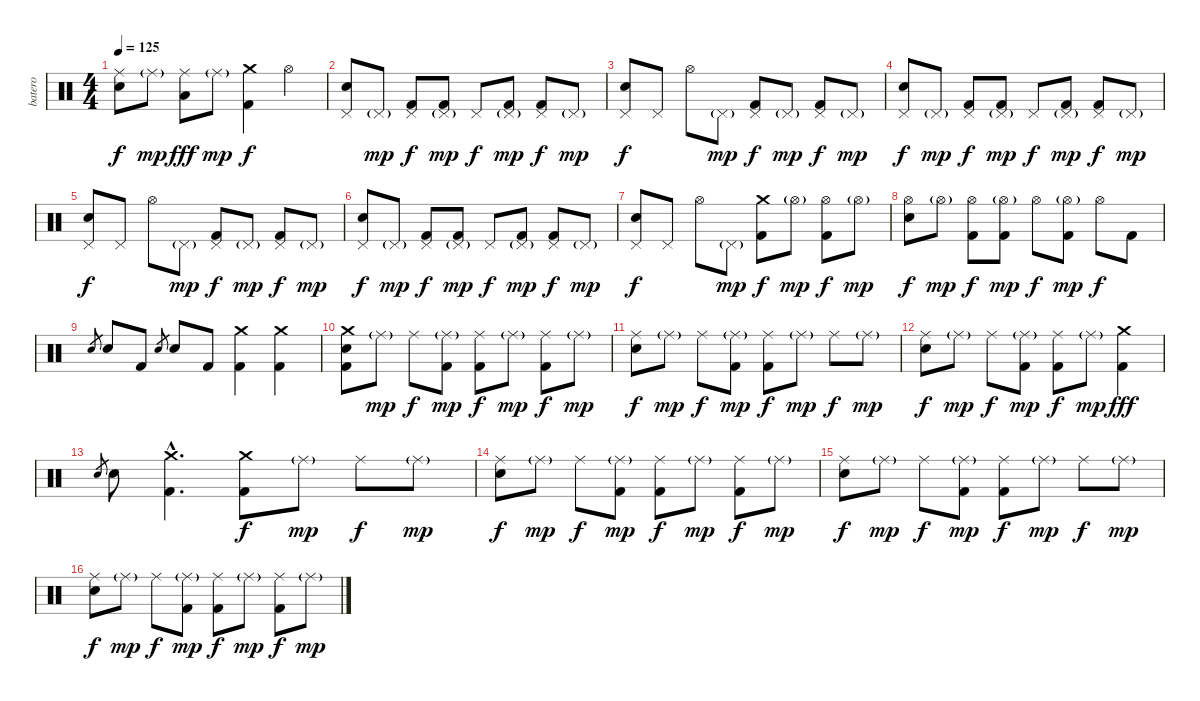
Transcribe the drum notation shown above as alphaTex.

\track ("batero" "batero") {instrument percussion}
\staff {score}
\articulation defaults
\ts (4 4)
\tempo 125
\clef neutral
\ks c
("Ride (middle)" "Snare (hit) 2").8{dy f} "Ride (middle)"{g}.8{dy mp} ("Ride (middle)" "Low Floor Tom (hit)").8{dy fff} "Ride (middle)"{g}.8{dy mp} ("Crash medium (hit)" "Kick (hit) 2").4{dy f} "Hi-Hat (open)".4 |
("Pedal Hi-Hat (hit)" "Snare (hit) 2").8 "Pedal Hi-Hat (hit)"{g}.8{dy mp} ("Pedal Hi-Hat (hit)" "Kick (hit) 2").8{dy f} ("Pedal Hi-Hat (hit)"{g} "Kick (hit) 2").8{dy mp} "Pedal Hi-Hat (hit)".8{dy f} ("Pedal Hi-Hat (hit)"{g} "Kick (hit) 2").8{dy mp} ("Pedal Hi-Hat (hit)" "Kick (hit) 2").8{dy f} "Pedal Hi-Hat (hit)"{g}.8{dy mp} |
("Pedal Hi-Hat (hit)" "Snare (hit) 2").8{dy f} "Pedal Hi-Hat (hit)".8 "Hi-Hat (open)".8 "Pedal Hi-Hat (hit)"{g}.8{dy mp} ("Pedal Hi-Hat (hit)" "Kick (hit) 2").8{dy f} "Pedal Hi-Hat (hit)"{g}.8{dy mp} ("Pedal Hi-Hat (hit)" "Kick (hit) 2").8{dy f} "Pedal Hi-Hat (hit)"{g}.8{dy mp} |
("Pedal Hi-Hat (hit)" "Snare (hit) 2").8{dy f} "Pedal Hi-Hat (hit)"{g}.8{dy mp} ("Pedal Hi-Hat (hit)" "Kick (hit) 2").8{dy f} ("Pedal Hi-Hat (hit)"{g} "Kick (hit) 2").8{dy mp} "Pedal Hi-Hat (hit)".8{dy f} ("Pedal Hi-Hat (hit)"{g} "Kick (hit) 2").8{dy mp} ("Pedal Hi-Hat (hit)" "Kick (hit) 2").8{dy f} "Pedal Hi-Hat (hit)"{g}.8{dy mp} |
("Pedal Hi-Hat (hit)" "Snare (hit) 2").8{dy f} "Pedal Hi-Hat (hit)".8 "Hi-Hat (open)".8 "Pedal Hi-Hat (hit)"{g}.8{dy mp} ("Pedal Hi-Hat (hit)" "Kick (hit) 2").8{dy f} "Pedal Hi-Hat (hit)"{g}.8{dy mp} ("Pedal Hi-Hat (hit)" "Kick (hit) 2").8{dy f} "Pedal Hi-Hat (hit)"{g}.8{dy mp} |
("Pedal Hi-Hat (hit)" "Snare (hit) 2").8{dy f} "Pedal Hi-Hat (hit)"{g}.8{dy mp} ("Pedal Hi-Hat (hit)" "Kick (hit) 2").8{dy f} ("Pedal Hi-Hat (hit)"{g} "Kick (hit) 2").8{dy mp} "Pedal Hi-Hat (hit)".8{dy f} ("Pedal Hi-Hat (hit)"{g} "Kick (hit) 2").8{dy mp} ("Pedal Hi-Hat (hit)" "Kick (hit) 2").8{dy f} "Pedal Hi-Hat (hit)"{g}.8{dy mp} |
("Pedal Hi-Hat (hit)" "Snare (hit) 2").8{dy f} "Pedal Hi-Hat (hit)".8 "Hi-Hat (open)".8 "Pedal Hi-Hat (hit)"{g}.8{dy mp} ("Crash medium (hit)" "Kick (hit) 2").8{dy f} "Hi-Hat (open)"{g}.8{dy mp} ("Hi-Hat (open)" "Kick (hit) 2").8{dy f} "Hi-Hat (open)"{g}.8{dy mp} |
("Hi-Hat (open)" "Snare (hit) 2").8{dy f} "Hi-Hat (open)"{g}.8{dy mp} ("Hi-Hat (open)" "Kick (hit) 2").8{dy f} ("Hi-Hat (open)"{g} "Kick (hit) 2").8{dy mp} "Hi-Hat (open)".8{dy f} ("Hi-Hat (open)"{g} "Kick (hit) 2").8{dy mp} "Hi-Hat (open)".8{dy f} "Kick (hit) 2".8 |
"Snare (hit) 2".8{gr} "Snare (hit) 2".8 "Kick (hit) 2".8 "Snare (hit) 2".8{gr} "Snare (hit) 2".8 "Kick (hit) 2".8 ("Crash medium (hit)" "Kick (hit) 2").4 ("Crash medium (hit)" "Kick (hit) 2").4 |
("Crash medium (hit)" "Snare (hit) 2" "Kick (hit) 2").8 "Ride (middle)"{g}.8{dy mp} "Ride (middle)".8{dy f} ("Ride (middle)"{g} "Kick (hit) 2").8{dy mp} ("Ride (middle)" "Kick (hit) 2").8{dy f} "Ride (middle)"{g}.8{dy mp} ("Ride (middle)" "Kick (hit) 2").8{dy f} "Ride (middle)"{g}.8{dy mp} |
("Ride (middle)" "Snare (hit) 2").8{dy f} "Ride (middle)"{g}.8{dy mp} "Ride (middle)".8{dy f} ("Ride (middle)"{g} "Kick (hit) 2").8{dy mp} ("Ride (middle)" "Kick (hit) 2").8{dy f} "Ride (middle)"{g}.8{dy mp} "Ride (middle)".8{dy f} "Ride (middle)"{g}.8{dy mp} |
("Ride (middle)" "Snare (hit) 2").8{dy f} "Ride (middle)"{g}.8{dy mp} "Ride (middle)".8{dy f} ("Ride (middle)"{g} "Kick (hit) 2").8{dy mp} ("Ride (middle)" "Kick (hit) 2").8{dy f} "Ride (middle)"{g}.8{dy mp} ("Crash medium (hit)" "Kick (hit) 2").4{dy fff} |
"Snare (hit) 2".8{gr} "Snare (hit) 2".8 ("Crash medium (hit)"{hac} "Kick (hit) 2"{hac}).4{d} ("Crash medium (hit)" "Kick (hit) 2").8{dy f} "Ride (middle)"{g}.8{dy mp} "Ride (middle)".8{dy f} "Ride (middle)"{g}.8{dy mp} |
("Ride (middle)" "Snare (hit) 2").8{dy f} "Ride (middle)"{g}.8{dy mp} "Ride (middle)".8{dy f} ("Ride (middle)"{g} "Kick (hit) 2").8{dy mp} ("Ride (middle)" "Kick (hit) 2").8{dy f} "Ride (middle)"{g}.8{dy mp} ("Ride (middle)" "Kick (hit) 2").8{dy f} "Ride (middle)"{g}.8{dy mp} |
("Ride (middle)" "Snare (hit) 2").8{dy f} "Ride (middle)"{g}.8{dy mp} "Ride (middle)".8{dy f} ("Ride (middle)"{g} "Kick (hit) 2").8{dy mp} ("Ride (middle)" "Kick (hit) 2").8{dy f} "Ride (middle)"{g}.8{dy mp} "Ride (middle)".8{dy f} "Ride (middle)"{g}.8{dy mp} |
("Ride (middle)" "Snare (hit) 2").8{dy f} "Ride (middle)"{g}.8{dy mp} "Ride (middle)".8{dy f} ("Ride (middle)"{g} "Kick (hit) 2").8{dy mp} ("Ride (middle)" "Kick (hit) 2").8{dy f} "Ride (middle)"{g}.8{dy mp} ("Ride (middle)" "Kick (hit) 2").8{dy f} "Ride (middle)"{g}.8{dy mp}
